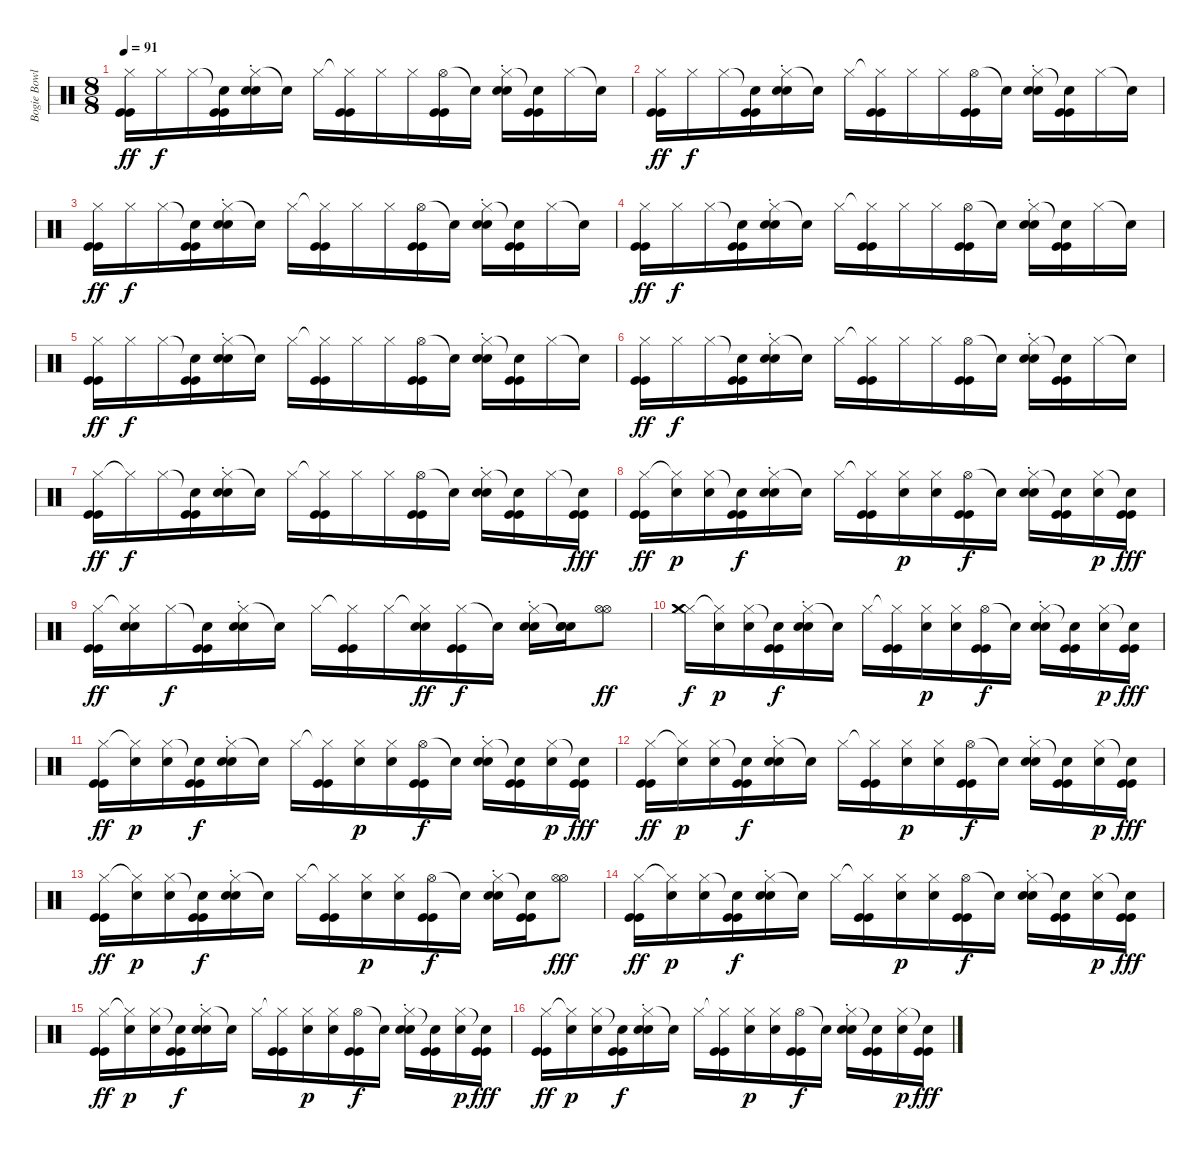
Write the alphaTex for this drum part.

\track ("Bogie Bowles Drums" "Bogie Bowl") {instrument percussion}
\staff {score}
\articulation defaults
\ts (8 8)
\tempo 91
\clef neutral
\ks c
("Hi-Hat (closed)" "Kick (hit)" "Kick (hit)").16{dy ff} "Hi-Hat (closed)".16{dy f} "Hi-Hat (closed)".16 ("Snare (hit)"{t} "Kick (hit)" "Kick (hit)").16 ("Hi-Hat (closed)" "Snare (hit) 2"{st} "Snare (hit) 2").16 "Snare (hit)"{t}.16 "Hi-Hat (closed)".16 ("Hi-Hat (closed)"{t} "Kick (hit)" "Kick (hit)").16 "Hi-Hat (closed)".16 "Hi-Hat (closed)".16 ("Hi-Hat (open)" "Kick (hit)" "Kick (hit)").16 "Snare (hit)"{t}.16 ("Hi-Hat (closed)" "Snare (hit) 2"{st} "Snare (hit) 2").16 ("Snare (hit)"{t} "Kick (hit)" "Kick (hit)").16 "Hi-Hat (closed)".16 "Snare (hit)"{t}.16 |
("Hi-Hat (closed)" "Kick (hit)" "Kick (hit)").16{dy ff} "Hi-Hat (closed)".16{dy f} "Hi-Hat (closed)".16 ("Snare (hit)"{t} "Kick (hit)" "Kick (hit)").16 ("Hi-Hat (closed)" "Snare (hit) 2"{st} "Snare (hit) 2").16 "Snare (hit)"{t}.16 "Hi-Hat (closed)".16 ("Hi-Hat (closed)"{t} "Kick (hit)" "Kick (hit)").16 "Hi-Hat (closed)".16 "Hi-Hat (closed)".16 ("Hi-Hat (open)" "Kick (hit)" "Kick (hit)").16 "Snare (hit)"{t}.16 ("Hi-Hat (closed)" "Snare (hit) 2"{st} "Snare (hit) 2").16 ("Snare (hit)"{t} "Kick (hit)" "Kick (hit)").16 "Hi-Hat (closed)".16 "Snare (hit)"{t}.16 |
("Hi-Hat (closed)" "Kick (hit)" "Kick (hit)").16{dy ff} "Hi-Hat (closed)".16{dy f} "Hi-Hat (closed)".16 ("Snare (hit)"{t} "Kick (hit)" "Kick (hit)").16 ("Hi-Hat (closed)" "Snare (hit) 2"{st} "Snare (hit) 2").16 "Snare (hit)"{t}.16 "Hi-Hat (closed)".16 ("Hi-Hat (closed)"{t} "Kick (hit)" "Kick (hit)").16 "Hi-Hat (closed)".16 "Hi-Hat (closed)".16 ("Hi-Hat (open)" "Kick (hit)" "Kick (hit)").16 "Snare (hit)"{t}.16 ("Hi-Hat (closed)" "Snare (hit) 2"{st} "Snare (hit) 2").16 ("Snare (hit)"{t} "Kick (hit)" "Kick (hit)").16 "Hi-Hat (closed)".16 "Snare (hit)"{t}.16 |
("Hi-Hat (closed)" "Kick (hit)" "Kick (hit)").16{dy ff} "Hi-Hat (closed)".16{dy f} "Hi-Hat (closed)".16 ("Snare (hit)"{t} "Kick (hit)" "Kick (hit)").16 ("Hi-Hat (closed)" "Snare (hit) 2"{st} "Snare (hit) 2").16 "Snare (hit)"{t}.16 "Hi-Hat (closed)".16 ("Hi-Hat (closed)"{t} "Kick (hit)" "Kick (hit)").16 "Hi-Hat (closed)".16 "Hi-Hat (closed)".16 ("Hi-Hat (open)" "Kick (hit)" "Kick (hit)").16 "Snare (hit)"{t}.16 ("Hi-Hat (closed)" "Snare (hit) 2"{st} "Snare (hit) 2").16 ("Snare (hit)"{t} "Kick (hit)" "Kick (hit)").16 "Hi-Hat (closed)".16 "Snare (hit)"{t}.16 |
("Hi-Hat (closed)" "Kick (hit)" "Kick (hit)").16{dy ff} "Hi-Hat (closed)".16{dy f} "Hi-Hat (closed)".16 ("Snare (hit)"{t} "Kick (hit)" "Kick (hit)").16 ("Hi-Hat (closed)" "Snare (hit) 2"{st} "Snare (hit) 2").16 "Snare (hit)"{t}.16 "Hi-Hat (closed)".16 ("Hi-Hat (closed)"{t} "Kick (hit)" "Kick (hit)").16 "Hi-Hat (closed)".16 "Hi-Hat (closed)".16 ("Hi-Hat (open)" "Kick (hit)" "Kick (hit)").16 "Snare (hit)"{t}.16 ("Hi-Hat (closed)" "Snare (hit) 2"{st} "Snare (hit) 2").16 ("Snare (hit)"{t} "Kick (hit)" "Kick (hit)").16 "Hi-Hat (closed)".16 "Snare (hit)"{t}.16 |
("Hi-Hat (closed)" "Kick (hit)" "Kick (hit)").16{dy ff} "Hi-Hat (closed)".16{dy f} "Hi-Hat (closed)".16 ("Snare (hit)"{t} "Kick (hit)" "Kick (hit)").16 ("Hi-Hat (closed)" "Snare (hit) 2"{st} "Snare (hit) 2").16 "Snare (hit)"{t}.16 "Hi-Hat (closed)".16 ("Hi-Hat (closed)"{t} "Kick (hit)" "Kick (hit)").16 "Hi-Hat (closed)".16 "Hi-Hat (closed)".16 ("Hi-Hat (open)" "Kick (hit)" "Kick (hit)").16 "Snare (hit)"{t}.16 ("Hi-Hat (closed)" "Snare (hit) 2"{st} "Snare (hit) 2").16 ("Snare (hit)"{t} "Kick (hit)" "Kick (hit)").16 "Hi-Hat (closed)".16 "Snare (hit)"{t}.16 |
("Hi-Hat (closed)" "Kick (hit)" "Kick (hit)").16{dy ff} "Hi-Hat (closed)"{t}.16{dy f} "Hi-Hat (closed)".16 ("Snare (hit)"{t} "Kick (hit)" "Kick (hit)").16 ("Hi-Hat (closed)" "Snare (hit) 2"{st} "Snare (hit) 2").16 "Snare (hit)"{t}.16 "Hi-Hat (closed)".16 ("Hi-Hat (closed)"{t} "Kick (hit)" "Kick (hit)").16 "Hi-Hat (closed)".16 "Hi-Hat (closed)".16 ("Hi-Hat (open)" "Kick (hit)" "Kick (hit)").16 "Snare (hit)"{t}.16 ("Hi-Hat (closed)" "Snare (hit) 2"{st} "Snare (hit) 2").16 ("Snare (hit)"{t} "Kick (hit)" "Kick (hit)").16 "Hi-Hat (closed)".16 ("Snare (hit)"{t} "Kick (hit)" "Kick (hit)").16{dy fff} |
("Hi-Hat (closed)" "Kick (hit)" "Kick (hit)").16{dy ff} ("Hi-Hat (closed)"{t} "Snare (hit) 2").16{dy p} ("Hi-Hat (closed)" "Snare (hit) 2").16 ("Snare (hit)"{t} "Kick (hit)" "Kick (hit)").16{dy f} ("Hi-Hat (closed)" "Snare (hit) 2"{st} "Snare (hit) 2").16 "Snare (hit)"{t}.16 "Hi-Hat (closed)".16 ("Hi-Hat (closed)"{t} "Kick (hit)" "Kick (hit)").16 ("Hi-Hat (closed)" "Snare (hit) 2").16{dy p} ("Hi-Hat (closed)" "Snare (hit) 2").16 ("Hi-Hat (open)" "Kick (hit)" "Kick (hit)").16{dy f} "Snare (hit)"{t}.16 ("Hi-Hat (closed)" "Snare (hit) 2"{st} "Snare (hit) 2").16 ("Snare (hit)"{t} "Kick (hit)" "Kick (hit)").16 ("Hi-Hat (closed)" "Snare (hit) 2").16{dy p} ("Snare (hit)"{t} "Kick (hit)" "Kick (hit)").16{dy fff} |
("Hi-Hat (closed)" "Kick (hit)" "Kick (hit)").16{dy ff} ("Hi-Hat (closed)"{t} "Snare (hit) 2" "Snare (hit) 2").16 "Hi-Hat (closed)".16{dy f} ("Snare (hit)"{t} "Kick (hit)" "Kick (hit)").16 ("Hi-Hat (closed)" "Snare (hit) 2"{st} "Snare (hit) 2").16 "Snare (hit)"{t}.16 "Hi-Hat (closed)".16 ("Hi-Hat (closed)"{t} "Kick (hit)" "Kick (hit)").16 "Hi-Hat (closed)".16 ("Hi-Hat (closed)"{t} "Snare (hit) 2" "Snare (hit) 2").16{dy ff} ("Hi-Hat (closed)" "Kick (hit)" "Kick (hit)").16{dy f} "Snare (hit)"{t}.16 ("Hi-Hat (closed)" "Snare (hit) 2"{st} "Snare (hit) 2").16 ("Snare (hit)"{t} "Snare (hit) 2" "Snare (hit) 2").16 ("Hi-Hat (open)" "Hi-Hat (open)").8{dy ff} |
("Hi-Hat (closed)" "Crash medium (hit)" "Crash medium (hit)").16{dy f} ("Hi-Hat (closed)"{t} "Snare (hit) 2").16{dy p} ("Hi-Hat (closed)" "Snare (hit) 2").16 ("Snare (hit)"{t} "Kick (hit)" "Kick (hit)").16{dy f} ("Hi-Hat (closed)" "Snare (hit) 2"{st} "Snare (hit) 2").16 "Snare (hit)"{t}.16 "Hi-Hat (closed)".16 ("Hi-Hat (closed)"{t} "Kick (hit)" "Kick (hit)").16 ("Hi-Hat (closed)" "Snare (hit) 2").16{dy p} ("Hi-Hat (closed)" "Snare (hit) 2").16 ("Hi-Hat (open)" "Kick (hit)" "Kick (hit)").16{dy f} "Snare (hit)"{t}.16 ("Hi-Hat (closed)" "Snare (hit) 2"{st} "Snare (hit) 2").16 ("Snare (hit)"{t} "Kick (hit)" "Kick (hit)").16 ("Hi-Hat (closed)" "Snare (hit) 2").16{dy p} ("Snare (hit)"{t} "Kick (hit)" "Kick (hit)").16{dy fff} |
("Hi-Hat (closed)" "Kick (hit)" "Kick (hit)").16{dy ff} ("Hi-Hat (closed)"{t} "Snare (hit) 2").16{dy p} ("Hi-Hat (closed)" "Snare (hit) 2").16 ("Snare (hit)"{t} "Kick (hit)" "Kick (hit)").16{dy f} ("Hi-Hat (closed)" "Snare (hit) 2"{st} "Snare (hit) 2").16 "Snare (hit)"{t}.16 "Hi-Hat (closed)".16 ("Hi-Hat (closed)"{t} "Kick (hit)" "Kick (hit)").16 ("Hi-Hat (closed)" "Snare (hit) 2").16{dy p} ("Hi-Hat (closed)" "Snare (hit) 2").16 ("Hi-Hat (open)" "Kick (hit)" "Kick (hit)").16{dy f} "Snare (hit)"{t}.16 ("Hi-Hat (closed)" "Snare (hit) 2"{st} "Snare (hit) 2").16 ("Snare (hit)"{t} "Kick (hit)" "Kick (hit)").16 ("Hi-Hat (closed)" "Snare (hit) 2").16{dy p} ("Snare (hit)"{t} "Kick (hit)" "Kick (hit)").16{dy fff} |
("Hi-Hat (closed)" "Kick (hit)" "Kick (hit)").16{dy ff} ("Hi-Hat (closed)"{t} "Snare (hit) 2").16{dy p} ("Hi-Hat (closed)" "Snare (hit) 2").16 ("Snare (hit)"{t} "Kick (hit)" "Kick (hit)").16{dy f} ("Hi-Hat (closed)" "Snare (hit) 2"{st} "Snare (hit) 2").16 "Snare (hit)"{t}.16 "Hi-Hat (closed)".16 ("Hi-Hat (closed)"{t} "Kick (hit)" "Kick (hit)").16 ("Hi-Hat (closed)" "Snare (hit) 2").16{dy p} ("Hi-Hat (closed)" "Snare (hit) 2").16 ("Hi-Hat (open)" "Kick (hit)" "Kick (hit)").16{dy f} "Snare (hit)"{t}.16 ("Hi-Hat (closed)" "Snare (hit) 2"{st} "Snare (hit) 2").16 ("Snare (hit)"{t} "Kick (hit)" "Kick (hit)").16 ("Hi-Hat (closed)" "Snare (hit) 2").16{dy p} ("Snare (hit)"{t} "Kick (hit)" "Kick (hit)").16{dy fff} |
("Hi-Hat (closed)" "Kick (hit)" "Kick (hit)").16{dy ff} ("Hi-Hat (closed)"{t} "Snare (hit) 2").16{dy p} ("Hi-Hat (closed)" "Snare (hit) 2").16 ("Snare (hit)"{t} "Kick (hit)" "Kick (hit)").16{dy f} ("Hi-Hat (closed)" "Snare (hit) 2"{st} "Snare (hit) 2").16 "Snare (hit)"{t}.16 "Hi-Hat (closed)".16 ("Hi-Hat (closed)"{t} "Kick (hit)" "Kick (hit)").16 ("Hi-Hat (closed)" "Snare (hit) 2").16{dy p} ("Hi-Hat (closed)" "Snare (hit) 2").16 ("Hi-Hat (open)" "Kick (hit)" "Kick (hit)").16{dy f} "Snare (hit)"{t}.16 ("Hi-Hat (closed)" "Snare (hit) 2"{st} "Snare (hit) 2").16 ("Snare (hit)"{t} "Kick (hit)" "Kick (hit)").16 ("Hi-Hat (open)" "Hi-Hat (open)").8{dy fff} |
("Hi-Hat (closed)" "Kick (hit)" "Kick (hit)").16{dy ff} ("Hi-Hat (closed)"{t} "Snare (hit) 2").16{dy p} ("Hi-Hat (closed)" "Snare (hit) 2").16 ("Snare (hit)"{t} "Kick (hit)" "Kick (hit)").16{dy f} ("Hi-Hat (closed)" "Snare (hit) 2"{st} "Snare (hit) 2").16 "Snare (hit)"{t}.16 "Hi-Hat (closed)".16 ("Hi-Hat (closed)"{t} "Kick (hit)" "Kick (hit)").16 ("Hi-Hat (closed)" "Snare (hit) 2").16{dy p} ("Hi-Hat (closed)" "Snare (hit) 2").16 ("Hi-Hat (open)" "Kick (hit)" "Kick (hit)").16{dy f} "Snare (hit)"{t}.16 ("Hi-Hat (closed)" "Snare (hit) 2"{st} "Snare (hit) 2").16 ("Snare (hit)"{t} "Kick (hit)" "Kick (hit)").16 ("Hi-Hat (closed)" "Snare (hit) 2").16{dy p} ("Snare (hit)"{t} "Kick (hit)" "Kick (hit)").16{dy fff} |
("Hi-Hat (closed)" "Kick (hit)" "Kick (hit)").16{dy ff} ("Hi-Hat (closed)"{t} "Snare (hit) 2").16{dy p} ("Hi-Hat (closed)" "Snare (hit) 2").16 ("Snare (hit)"{t} "Kick (hit)" "Kick (hit)").16{dy f} ("Hi-Hat (closed)" "Snare (hit) 2"{st} "Snare (hit) 2").16 "Snare (hit)"{t}.16 "Hi-Hat (closed)".16 ("Hi-Hat (closed)"{t} "Kick (hit)" "Kick (hit)").16 ("Hi-Hat (closed)" "Snare (hit) 2").16{dy p} ("Hi-Hat (closed)" "Snare (hit) 2").16 ("Hi-Hat (open)" "Kick (hit)" "Kick (hit)").16{dy f} "Snare (hit)"{t}.16 ("Hi-Hat (closed)" "Snare (hit) 2"{st} "Snare (hit) 2").16 ("Snare (hit)"{t} "Kick (hit)" "Kick (hit)").16 ("Hi-Hat (closed)" "Snare (hit) 2").16{dy p} ("Snare (hit)"{t} "Kick (hit)" "Kick (hit)").16{dy fff} |
("Hi-Hat (closed)" "Kick (hit)" "Kick (hit)").16{dy ff} ("Hi-Hat (closed)"{t} "Snare (hit) 2").16{dy p} ("Hi-Hat (closed)" "Snare (hit) 2").16 ("Snare (hit)"{t} "Kick (hit)" "Kick (hit)").16{dy f} ("Hi-Hat (closed)" "Snare (hit) 2"{st} "Snare (hit) 2").16 "Snare (hit)"{t}.16 "Hi-Hat (closed)".16 ("Hi-Hat (closed)"{t} "Kick (hit)" "Kick (hit)").16 ("Hi-Hat (closed)" "Snare (hit) 2").16{dy p} ("Hi-Hat (closed)" "Snare (hit) 2").16 ("Hi-Hat (open)" "Kick (hit)" "Kick (hit)").16{dy f} "Snare (hit)"{t}.16 ("Hi-Hat (closed)" "Snare (hit) 2"{st} "Snare (hit) 2").16 ("Snare (hit)"{t} "Kick (hit)" "Kick (hit)").16 ("Hi-Hat (closed)" "Snare (hit) 2").16{dy p} ("Snare (hit)"{t} "Kick (hit)" "Kick (hit)").16{dy fff}
